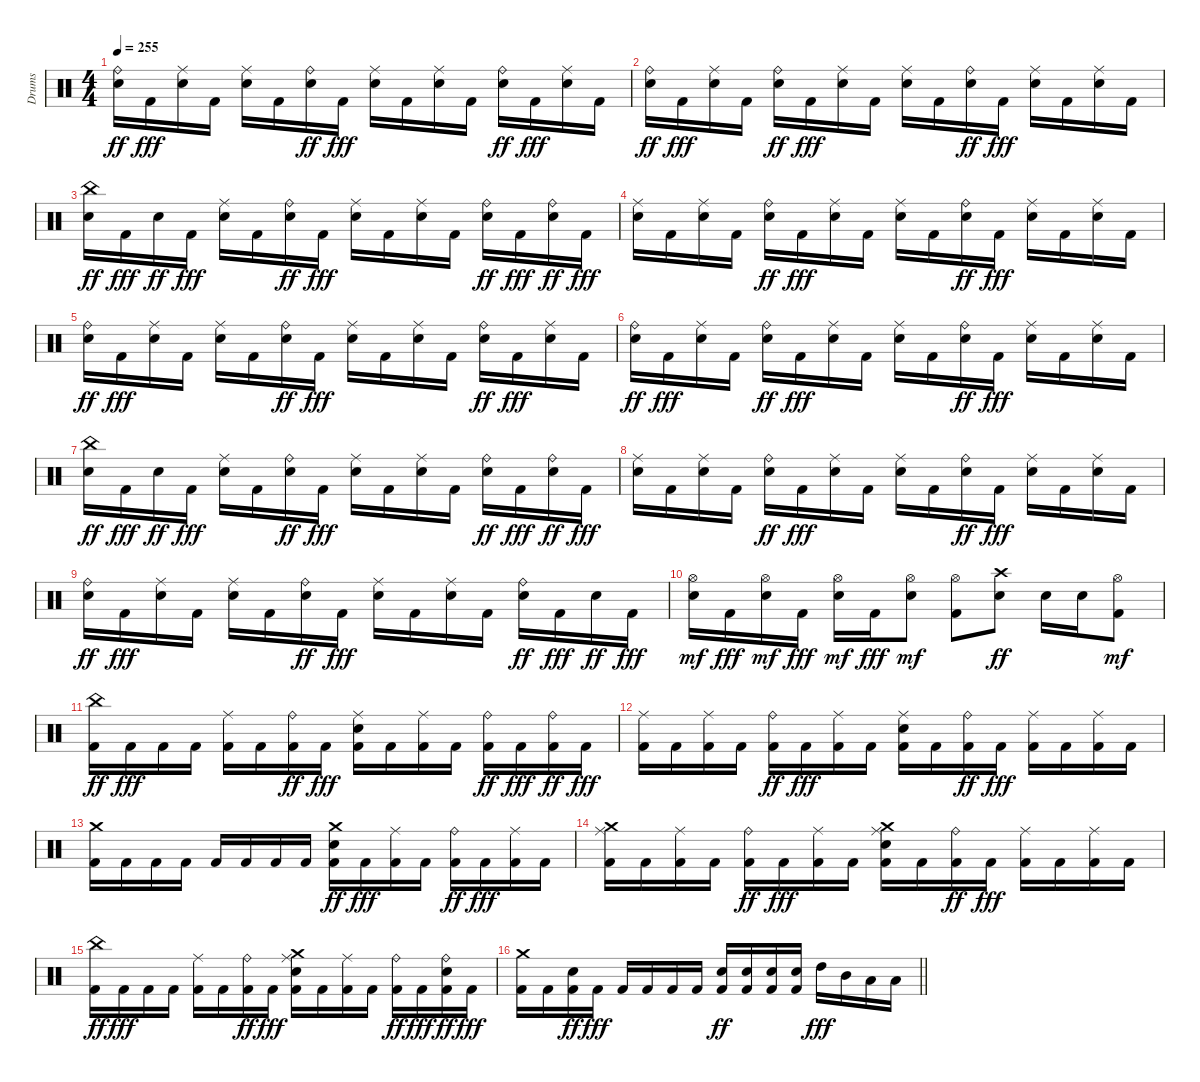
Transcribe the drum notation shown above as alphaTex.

\track ("Drums" "Drums") {instrument percussion}
\staff {score}
\articulation defaults
\ts (4 4)
\tempo 255
\clef neutral
\ks c
("Snare (hit) 2" "Ride (bell)").16{dy ff} "Kick (hit) 2".16{dy fff} ("Snare (hit) 2" "Ride (middle)").16 "Kick (hit) 2".16 ("Snare (hit) 2" "Ride (middle)").16 "Kick (hit) 2".16 ("Snare (hit) 2" "Ride (bell)").16{dy ff} "Kick (hit) 2".16{dy fff} ("Snare (hit) 2" "Ride (middle)").16 "Kick (hit) 2".16 ("Snare (hit) 2" "Ride (middle)").16 "Kick (hit) 2".16 ("Snare (hit) 2" "Ride (bell)").16{dy ff} "Kick (hit) 2".16{dy fff} ("Snare (hit) 2" "Ride (middle)").16 "Kick (hit) 2".16 |
("Snare (hit) 2" "Ride (bell)").16{dy ff} "Kick (hit) 2".16{dy fff} ("Snare (hit) 2" "Ride (middle)").16 "Kick (hit) 2".16 ("Snare (hit) 2" "Ride (bell)").16{dy ff} "Kick (hit) 2".16{dy fff} ("Snare (hit) 2" "Ride (middle)").16 "Kick (hit) 2".16 ("Snare (hit) 2" "Ride (middle)").16 "Kick (hit) 2".16 ("Snare (hit) 2" "Ride (bell)").16{dy ff} "Kick (hit) 2".16{dy fff} ("Snare (hit) 2" "Ride (middle)").16 "Kick (hit) 2".16 ("Snare (hit) 2" "Ride (middle)").16 "Kick (hit) 2".16 |
("Snare (hit) 2" "China (hit)").16{dy ff} "Kick (hit) 2".16{dy fff} "Snare (hit) 2".16{dy ff} "Kick (hit) 2".16{dy fff} ("Snare (hit) 2" "Ride (middle)").16 "Kick (hit) 2".16 ("Snare (hit) 2" "Ride (bell)").16{dy ff} "Kick (hit) 2".16{dy fff} ("Snare (hit) 2" "Ride (middle)").16 "Kick (hit) 2".16 ("Snare (hit) 2" "Ride (middle)").16 "Kick (hit) 2".16 ("Snare (hit) 2" "Ride (bell)").16{dy ff} "Kick (hit) 2".16{dy fff} ("Snare (hit) 2" "Ride (bell)").16{dy ff} "Kick (hit) 2".16{dy fff} |
("Snare (hit) 2" "Ride (middle)").16 "Kick (hit) 2".16 ("Snare (hit) 2" "Ride (middle)").16 "Kick (hit) 2".16 ("Snare (hit) 2" "Ride (bell)").16{dy ff} "Kick (hit) 2".16{dy fff} ("Snare (hit) 2" "Ride (middle)").16 "Kick (hit) 2".16 ("Snare (hit) 2" "Ride (middle)").16 "Kick (hit) 2".16 ("Snare (hit) 2" "Ride (bell)").16{dy ff} "Kick (hit) 2".16{dy fff} ("Snare (hit) 2" "Ride (middle)").16 "Kick (hit) 2".16 ("Snare (hit) 2" "Ride (middle)").16 "Kick (hit) 2".16 |
("Snare (hit) 2" "Ride (bell)").16{dy ff} "Kick (hit) 2".16{dy fff} ("Snare (hit) 2" "Ride (middle)").16 "Kick (hit) 2".16 ("Snare (hit) 2" "Ride (middle)").16 "Kick (hit) 2".16 ("Snare (hit) 2" "Ride (bell)").16{dy ff} "Kick (hit) 2".16{dy fff} ("Snare (hit) 2" "Ride (middle)").16 "Kick (hit) 2".16 ("Snare (hit) 2" "Ride (middle)").16 "Kick (hit) 2".16 ("Snare (hit) 2" "Ride (bell)").16{dy ff} "Kick (hit) 2".16{dy fff} ("Snare (hit) 2" "Ride (middle)").16 "Kick (hit) 2".16 |
("Snare (hit) 2" "Ride (bell)").16{dy ff} "Kick (hit) 2".16{dy fff} ("Snare (hit) 2" "Ride (middle)").16 "Kick (hit) 2".16 ("Snare (hit) 2" "Ride (bell)").16{dy ff} "Kick (hit) 2".16{dy fff} ("Snare (hit) 2" "Ride (middle)").16 "Kick (hit) 2".16 ("Snare (hit) 2" "Ride (middle)").16 "Kick (hit) 2".16 ("Snare (hit) 2" "Ride (bell)").16{dy ff} "Kick (hit) 2".16{dy fff} ("Snare (hit) 2" "Ride (middle)").16 "Kick (hit) 2".16 ("Snare (hit) 2" "Ride (middle)").16 "Kick (hit) 2".16 |
("Snare (hit) 2" "China (hit)").16{dy ff} "Kick (hit) 2".16{dy fff} "Snare (hit) 2".16{dy ff} "Kick (hit) 2".16{dy fff} ("Snare (hit) 2" "Ride (middle)").16 "Kick (hit) 2".16 ("Snare (hit) 2" "Ride (bell)").16{dy ff} "Kick (hit) 2".16{dy fff} ("Snare (hit) 2" "Ride (middle)").16 "Kick (hit) 2".16 ("Snare (hit) 2" "Ride (middle)").16 "Kick (hit) 2".16 ("Snare (hit) 2" "Ride (bell)").16{dy ff} "Kick (hit) 2".16{dy fff} ("Snare (hit) 2" "Ride (bell)").16{dy ff} "Kick (hit) 2".16{dy fff} |
("Snare (hit) 2" "Ride (middle)").16 "Kick (hit) 2".16 ("Snare (hit) 2" "Ride (middle)").16 "Kick (hit) 2".16 ("Snare (hit) 2" "Ride (bell)").16{dy ff} "Kick (hit) 2".16{dy fff} ("Snare (hit) 2" "Ride (middle)").16 "Kick (hit) 2".16 ("Snare (hit) 2" "Ride (middle)").16 "Kick (hit) 2".16 ("Snare (hit) 2" "Ride (bell)").16{dy ff} "Kick (hit) 2".16{dy fff} ("Snare (hit) 2" "Ride (middle)").16 "Kick (hit) 2".16 ("Snare (hit) 2" "Ride (middle)").16 "Kick (hit) 2".16 |
("Snare (hit) 2" "Ride (bell)").16{dy ff} "Kick (hit) 2".16{dy fff} ("Snare (hit) 2" "Ride (middle)").16 "Kick (hit) 2".16 ("Snare (hit) 2" "Ride (middle)").16 "Kick (hit) 2".16 ("Snare (hit) 2" "Ride (bell)").16{dy ff} "Kick (hit) 2".16{dy fff} ("Snare (hit) 2" "Ride (middle)").16 "Kick (hit) 2".16 ("Snare (hit) 2" "Ride (middle)").16 "Kick (hit) 2".16 ("Snare (hit) 2" "Ride (bell)").16{dy ff} "Kick (hit) 2".16{dy fff} "Snare (hit) 2".16{dy ff} "Kick (hit) 2".16{dy fff} |
("Snare (hit) 2" "Hi-Hat (open)").16{dy mf} "Kick (hit) 2".16{dy fff} ("Snare (hit) 2" "Hi-Hat (open)").16{dy mf} "Kick (hit) 2".16{dy fff} ("Snare (hit) 2" "Hi-Hat (open)").16{dy mf} "Kick (hit) 2".16{dy fff} ("Snare (hit) 2" "Hi-Hat (open)").8{dy mf} ("Kick (hit) 2" "Hi-Hat (open)").8 ("Snare (hit) 2" "Crash high (hit)").8{dy ff} "Snare (hit) 2".16 "Snare (hit) 2".16 ("Kick (hit) 2" "Hi-Hat (open)").8{dy mf} |
("Kick (hit) 2" "China (hit)").16{dy ff} "Kick (hit) 2".16{dy fff} "Kick (hit) 2".16 "Kick (hit) 2".16 ("Kick (hit) 2" "Ride (middle)").16 "Kick (hit) 2".16 ("Kick (hit) 2" "Ride (bell)").16{dy ff} "Kick (hit) 2".16{dy fff} ("Kick (hit) 2" "Snare (hit) 2" "Ride (middle)").16 "Kick (hit) 2".16 ("Kick (hit) 2" "Ride (middle)").16 "Kick (hit) 2".16 ("Kick (hit) 2" "Ride (bell)").16{dy ff} "Kick (hit) 2".16{dy fff} ("Kick (hit) 2" "Ride (bell)").16{dy ff} "Kick (hit) 2".16{dy fff} |
("Kick (hit) 2" "Ride (middle)").16 "Kick (hit) 2".16 ("Kick (hit) 2" "Ride (middle)").16 "Kick (hit) 2".16 ("Kick (hit) 2" "Ride (bell)").16{dy ff} "Kick (hit) 2".16{dy fff} ("Kick (hit) 2" "Ride (middle)").16 "Kick (hit) 2".16 ("Kick (hit) 2" "Snare (hit) 2" "Ride (middle)").16 "Kick (hit) 2".16 ("Kick (hit) 2" "Ride (bell)").16{dy ff} "Kick (hit) 2".16{dy fff} ("Kick (hit) 2" "Ride (middle)").16 "Kick (hit) 2".16 ("Kick (hit) 2" "Ride (middle)").16 "Kick (hit) 2".16 |
("Kick (hit) 2" "Crash medium (hit)").16 "Kick (hit) 2".16 "Kick (hit) 2".16 "Kick (hit) 2".16 "Kick (hit) 2".16 "Kick (hit) 2".16 "Kick (hit) 2".16 "Kick (hit) 2".16 ("Kick (hit) 2" "Snare (hit) 2" "Crash medium (hit)").16{dy ff} "Kick (hit) 2".16{dy fff} ("Kick (hit) 2" "Ride (middle)").16 "Kick (hit) 2".16 ("Kick (hit) 2" "Ride (bell)").16{dy ff} "Kick (hit) 2".16{dy fff} ("Kick (hit) 2" "Ride (middle)").16 "Kick (hit) 2".16 |
("Kick (hit) 2" "Crash medium (hit)" "Ride (middle)").16 "Kick (hit) 2".16 ("Kick (hit) 2" "Ride (middle)").16 "Kick (hit) 2".16 ("Kick (hit) 2" "Ride (bell)").16{dy ff} "Kick (hit) 2".16{dy fff} ("Kick (hit) 2" "Ride (middle)").16 "Kick (hit) 2".16 ("Kick (hit) 2" "Snare (hit) 2" "Crash medium (hit)" "Ride (middle)").16 "Kick (hit) 2".16 ("Kick (hit) 2" "Ride (bell)").16{dy ff} "Kick (hit) 2".16{dy fff} ("Kick (hit) 2" "Ride (middle)").16 "Kick (hit) 2".16 ("Kick (hit) 2" "Ride (middle)").16 "Kick (hit) 2".16 |
("Kick (hit) 2" "China (hit)").16{dy ff} "Kick (hit) 2".16{dy fff} "Kick (hit) 2".16 "Kick (hit) 2".16 ("Kick (hit) 2" "Ride (middle)").16 "Kick (hit) 2".16 ("Kick (hit) 2" "Ride (bell)").16{dy ff} "Kick (hit) 2".16{dy fff} ("Kick (hit) 2" "Snare (hit) 2" "Crash medium (hit)" "Ride (middle)").16 "Kick (hit) 2".16 ("Kick (hit) 2" "Ride (middle)").16 "Kick (hit) 2".16 ("Kick (hit) 2" "Ride (bell)").16{dy ff} "Kick (hit) 2".16{dy fff} ("Kick (hit) 2" "Snare (hit) 2" "Ride (bell)").16{dy ff} "Kick (hit) 2".16{dy fff} |
\barLineRight lightlight
("Kick (hit) 2" "Crash medium (hit)").16 "Kick (hit) 2".16 ("Kick (hit) 2" "Snare (hit) 2").16{dy ff} "Kick (hit) 2".16{dy fff} "Kick (hit) 2".16 "Kick (hit) 2".16 "Kick (hit) 2".16 "Kick (hit) 2".16 ("Kick (hit) 2" "Snare (hit) 2").16{dy ff} ("Kick (hit) 2" "Snare (hit) 2").16 ("Kick (hit) 2" "Snare (hit) 2").16 ("Kick (hit) 2" "Snare (hit) 2").16 "High Tom (hit)".16{dy fff} "Mid Tom (hit)".16 "Low Tom (hit)".16 "Low Tom (hit)".16
